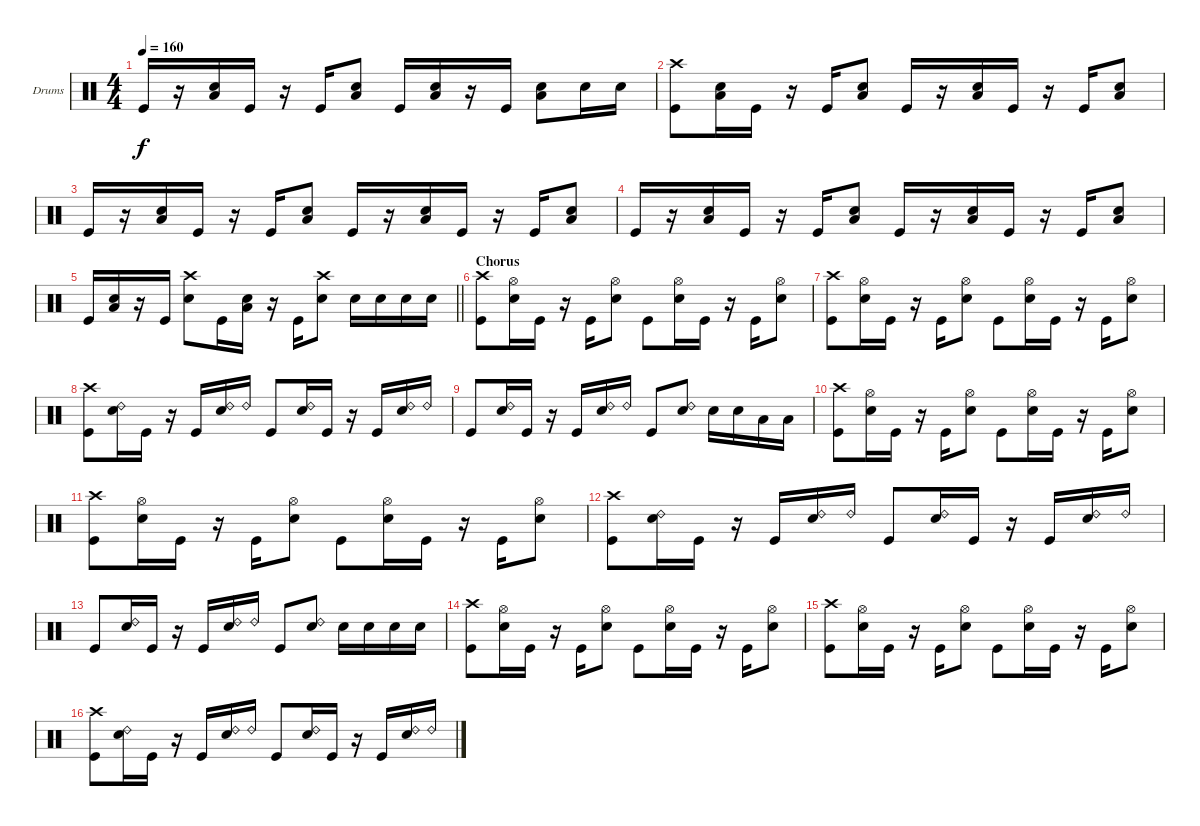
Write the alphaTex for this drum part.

\defaultSystemsLayout 4
\bracketExtendMode groupsimilarinstruments
\firstSystemTrackNameOrientation horizontal
\otherSystemsTrackNameOrientation horizontal
\track ("Drums" "Drums") {instrument percussion}
\staff {score}
\articulation defaults
\ts (4 4)
\tempo 160
\clef neutral
\ks c "Kick (hit)".16{dy f}
r.16 ("Snare (hit) 2" "Low Tom (hit)").16 "Kick (hit)".16 r.16 "Kick (hit)".16 ("Snare (hit) 2" "Low Tom (hit)").8 "Kick (hit)".16 ("Snare (hit) 2" "Low Tom (hit)").16 r.16 "Kick (hit)".16 ("Snare (hit) 2" "Low Tom (hit)").8 "Snare (hit) 2".16 "Snare (hit) 2".16 |
("Kick (hit)" "Crash high (hit)").8 ("Snare (hit) 2" "Low Tom (hit)").16 "Kick (hit)".16 r.16 "Kick (hit)".16 ("Snare (hit) 2" "Low Tom (hit)").8 "Kick (hit)".16 r.16 ("Snare (hit) 2" "Low Tom (hit)").16 "Kick (hit)".16 r.16 "Kick (hit)".16 ("Snare (hit) 2" "Low Tom (hit)").8 |
"Kick (hit)".16 r.16 ("Snare (hit) 2" "Low Tom (hit)").16 "Kick (hit)".16 r.16 "Kick (hit)".16 ("Snare (hit) 2" "Low Tom (hit)").8 "Kick (hit)".16 r.16 ("Snare (hit) 2" "Low Tom (hit)").16 "Kick (hit)".16 r.16 "Kick (hit)".16 ("Snare (hit) 2" "Low Tom (hit)").8 |
"Kick (hit)".16 r.16 ("Snare (hit) 2" "Low Tom (hit)").16 "Kick (hit)".16 r.16 "Kick (hit)".16 ("Snare (hit) 2" "Low Tom (hit)").8 "Kick (hit)".16 r.16 ("Snare (hit) 2" "Low Tom (hit)").16 "Kick (hit)".16 r.16 "Kick (hit)".16 ("Snare (hit) 2" "Low Tom (hit)").8 |
\barLineRight lightlight "Kick (hit)".16
("Snare (hit) 2" "Low Tom (hit)").16 r.16 "Kick (hit)".16 ("Snare (hit) 2" "Crash high (hit)").8 "Kick (hit)".16 ("Snare (hit) 2" "Low Tom (hit)").16 r.16 "Kick (hit)".16 ("Snare (hit) 2" "Crash high (hit)").8 "Snare (hit) 2".16 "Snare (hit) 2".16 "Snare (hit) 2".16 "Snare (hit) 2".16 |
\section ("" "Chorus")
("Kick (hit)" "Crash high (hit)").8 ("Snare (hit) 2" "Hi-Hat (open)").16 "Kick (hit)".16 r.16 "Kick (hit)".16 ("Snare (hit) 2" "Hi-Hat (open)").8 "Kick (hit)".8 ("Snare (hit) 2" "Hi-Hat (open)").16 "Kick (hit)".16 r.16 "Kick (hit)".16 ("Snare (hit) 2" "Hi-Hat (open)").8 |
("Kick (hit)" "Crash high (hit)").8 ("Snare (hit) 2" "Hi-Hat (open)").16 "Kick (hit)".16 r.16 "Kick (hit)".16 ("Snare (hit) 2" "Hi-Hat (open)").8 "Kick (hit)".8 ("Snare (hit) 2" "Hi-Hat (open)").16 "Kick (hit)".16 r.16 "Kick (hit)".16 ("Snare (hit) 2" "Hi-Hat (open)").8 |
("Kick (hit)" "Crash high (hit)").8 ("Ride (bell) 2" "Snare (hit) 2").16 "Kick (hit)".16 r.16 "Kick (hit)".16 ("Ride (bell) 2" "Snare (hit) 2").16 "Ride (bell) 2".16 "Kick (hit)".8 ("Ride (bell) 2" "Snare (hit) 2").16 "Kick (hit)".16 r.16 "Kick (hit)".16 ("Ride (bell) 2" "Snare (hit) 2").16 "Ride (bell) 2".16 |
"Kick (hit)".8 ("Ride (bell) 2" "Snare (hit) 2").16 "Kick (hit)".16 r.16 "Kick (hit)".16 ("Ride (bell) 2" "Snare (hit) 2").16 "Ride (bell) 2".16 "Kick (hit)".8 ("Ride (bell) 2" "Snare (hit) 2").8 "Snare (hit) 2".16 "Snare (hit) 2".16 "Low Tom (hit)".16 "Low Tom (hit)".16 |
("Kick (hit)" "Crash high (hit)").8 ("Snare (hit) 2" "Hi-Hat (open)").16 "Kick (hit)".16 r.16 "Kick (hit)".16 ("Snare (hit) 2" "Hi-Hat (open)").8 "Kick (hit)".8 ("Snare (hit) 2" "Hi-Hat (open)").16 "Kick (hit)".16 r.16 "Kick (hit)".16 ("Snare (hit) 2" "Hi-Hat (open)").8 |
("Kick (hit)" "Crash high (hit)").8 ("Snare (hit) 2" "Hi-Hat (open)").16 "Kick (hit)".16 r.16 "Kick (hit)".16 ("Snare (hit) 2" "Hi-Hat (open)").8 "Kick (hit)".8 ("Snare (hit) 2" "Hi-Hat (open)").16 "Kick (hit)".16 r.16 "Kick (hit)".16 ("Snare (hit) 2" "Hi-Hat (open)").8 |
("Kick (hit)" "Crash high (hit)").8 ("Ride (bell) 2" "Snare (hit) 2").16 "Kick (hit)".16 r.16 "Kick (hit)".16 ("Ride (bell) 2" "Snare (hit) 2").16 "Ride (bell) 2".16 "Kick (hit)".8 ("Ride (bell) 2" "Snare (hit) 2").16 "Kick (hit)".16 r.16 "Kick (hit)".16 ("Ride (bell) 2" "Snare (hit) 2").16 "Ride (bell) 2".16 |
"Kick (hit)".8 ("Ride (bell) 2" "Snare (hit) 2").16 "Kick (hit)".16 r.16 "Kick (hit)".16 ("Ride (bell) 2" "Snare (hit) 2").16 "Ride (bell) 2".16 "Kick (hit)".8 ("Ride (bell) 2" "Snare (hit) 2").8 "Snare (hit) 2".16 "Snare (hit) 2".16 "Snare (hit) 2".16 "Snare (hit) 2".16 |
("Kick (hit)" "Crash high (hit)").8 ("Snare (hit) 2" "Hi-Hat (open)").16 "Kick (hit)".16 r.16 "Kick (hit)".16 ("Snare (hit) 2" "Hi-Hat (open)").8 "Kick (hit)".8 ("Snare (hit) 2" "Hi-Hat (open)").16 "Kick (hit)".16 r.16 "Kick (hit)".16 ("Snare (hit) 2" "Hi-Hat (open)").8 |
("Kick (hit)" "Crash high (hit)").8 ("Snare (hit) 2" "Hi-Hat (open)").16 "Kick (hit)".16 r.16 "Kick (hit)".16 ("Snare (hit) 2" "Hi-Hat (open)").8 "Kick (hit)".8 ("Snare (hit) 2" "Hi-Hat (open)").16 "Kick (hit)".16 r.16 "Kick (hit)".16 ("Snare (hit) 2" "Hi-Hat (open)").8 |
("Kick (hit)" "Crash high (hit)").8 ("Ride (bell) 2" "Snare (hit) 2").16 "Kick (hit)".16 r.16 "Kick (hit)".16 ("Ride (bell) 2" "Snare (hit) 2").16 "Ride (bell) 2".16 "Kick (hit)".8 ("Ride (bell) 2" "Snare (hit) 2").16 "Kick (hit)".16 r.16 "Kick (hit)".16 ("Ride (bell) 2" "Snare (hit) 2").16 "Ride (bell) 2".16
